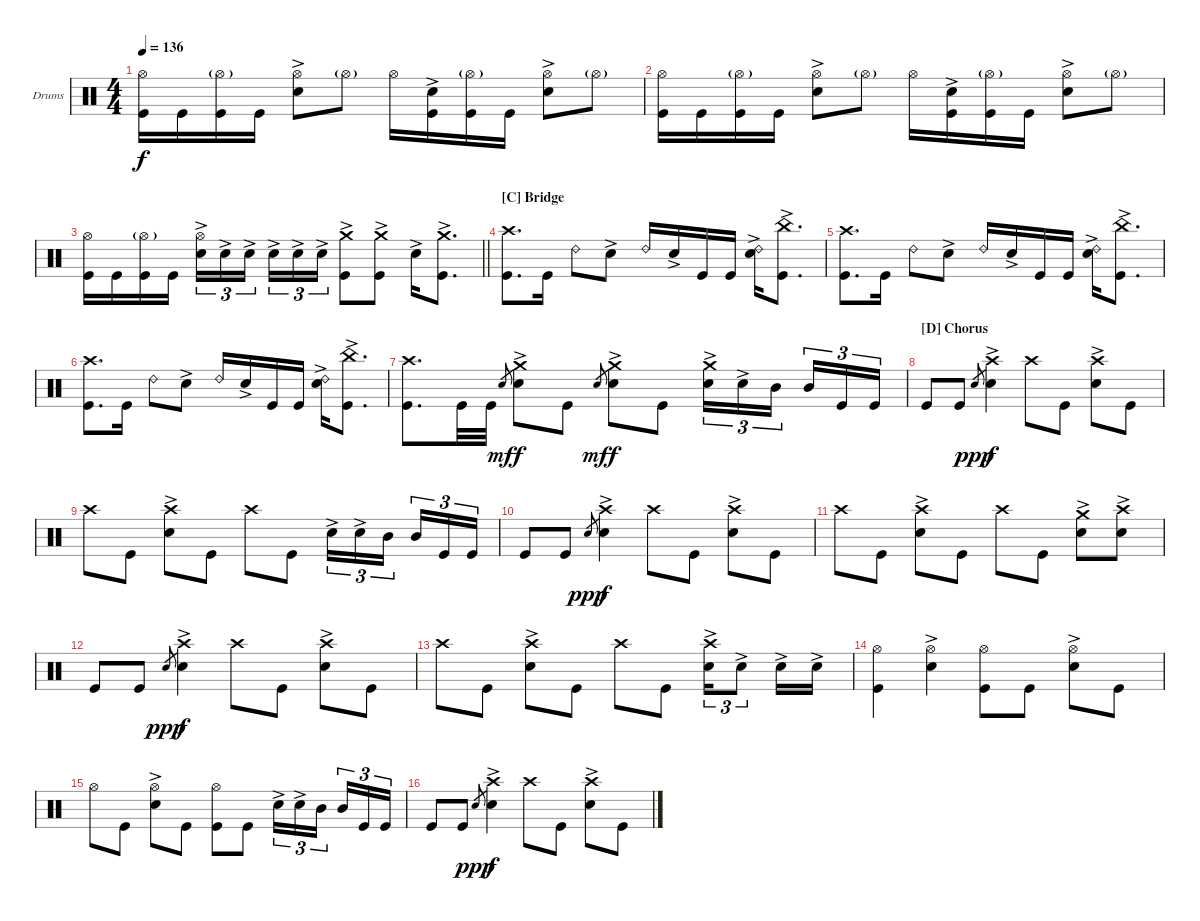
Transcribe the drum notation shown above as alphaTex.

\bracketExtendMode groupsimilarinstruments
\firstSystemTrackNameOrientation horizontal
\otherSystemsTrackNameOrientation horizontal
\track ("Drumkit" "Drums") {instrument percussion}
\staff {score}
\articulation defaults
\ts (4 4)
\tempo 136
\clef neutral
\ks c
("Hi-Hat (open)" "Kick (hit)").16{dy f} "Kick (hit)".16 ("Kick (hit)" "Hi-Hat (open)"{g}).16 "Kick (hit)".16 ("Hi-Hat (open)" "Snare (hit) 2"{ac}).8 "Hi-Hat (open)"{g}.8 "Hi-Hat (open)".16 ("Snare (hit) 2"{ac} "Kick (hit)").16 ("Kick (hit)" "Hi-Hat (open)"{g}).16 "Kick (hit)".16 ("Hi-Hat (open)" "Snare (hit) 2"{ac}).8 "Hi-Hat (open)"{g}.8 |
("Hi-Hat (open)" "Kick (hit)").16 "Kick (hit)".16 ("Kick (hit)" "Hi-Hat (open)"{g}).16 "Kick (hit)".16 ("Hi-Hat (open)" "Snare (hit) 2"{ac}).8 "Hi-Hat (open)"{g}.8 "Hi-Hat (open)".16 ("Snare (hit) 2"{ac} "Kick (hit)").16 ("Kick (hit)" "Hi-Hat (open)"{g}).16 "Kick (hit)".16 ("Hi-Hat (open)" "Snare (hit) 2"{ac}).8 "Hi-Hat (open)"{g}.8 |
\barLineRight lightlight
("Hi-Hat (open)" "Kick (hit)").16 "Kick (hit)".16 ("Kick (hit)" "Hi-Hat (open)"{g}).16 "Kick (hit)".16 ("Hi-Hat (open)" "Snare (hit) 2"{ac}).16{tu (3 2)} "Snare (hit) 2"{ac}.16{tu (3 2)} "Snare (hit) 2"{ac}.16{tu (3 2)} "Snare (hit) 2"{ac}.16{tu (3 2)} "Snare (hit) 2"{ac}.16{tu (3 2)} "Snare (hit) 2"{ac}.16{tu (3 2)} ("Crash medium (hit)"{ac} "Kick (hit)").8 ("Crash medium (hit)"{ac} "Kick (hit)").8 "Snare (hit) 2"{ac}.16 ("Crash medium (hit)"{ac} "Kick (hit)").8{d} |
\section ("C" "Bridge")
("Crash high (hit)" "Kick (hit)").8{d} "Kick (hit)".16 "Ride (bell) 2".8 "Snare (hit) 2"{ac}.8 "Ride (bell) 2".16 "Snare (hit) 2"{ac}.16 "Kick (hit)".16 "Kick (hit)".16 ("Ride (bell) 2" "Snare (hit) 2"{ac}).16 ("Kick (hit)" "China (hit)"{ac}).8{d} |
("Crash high (hit)" "Kick (hit)").8{d} "Kick (hit)".16 "Ride (bell) 2".8 "Snare (hit) 2"{ac}.8 "Ride (bell) 2".16 "Snare (hit) 2"{ac}.16 "Kick (hit)".16 "Kick (hit)".16 ("Ride (bell) 2" "Snare (hit) 2"{ac}).16 ("Kick (hit)" "China (hit)"{ac}).8{d} |
("Crash high (hit)" "Kick (hit)").8{d} "Kick (hit)".16 "Ride (bell) 2".8 "Snare (hit) 2"{ac}.8 "Ride (bell) 2".16 "Snare (hit) 2"{ac}.16 "Kick (hit)".16 "Kick (hit)".16 ("Ride (bell) 2" "Snare (hit) 2"{ac}).16 ("Kick (hit)" "China (hit)"{ac}).8{d} |
("Crash high (hit)" "Kick (hit)").8{d} "Kick (hit)".32 "Kick (hit)".32 "Snare (hit) 2".8{gr dy mf} ("Crash medium (hit)"{ac} "Snare (hit) 2"{ac}).8{dy f} "Kick (hit)".8 "Snare (hit) 2".8{gr dy mf} ("Crash medium (hit)"{ac} "Snare (hit) 2"{ac}).8{dy f} "Kick (hit)".8 ("Snare (hit) 2"{ac} "Crash medium (hit)"{ac}).16{tu (3 2)} "Snare (hit) 2"{ac}.16{tu (3 2)} "Mid Tom (hit)".16{tu (3 2)} "Mid Tom (hit)".16{tu (3 2)} "Kick (hit)".16{tu (3 2)} "Kick (hit)".16{tu (3 2)} |
\section ("D" "Chorus")
"Kick (hit)".8 "Kick (hit)".8 "Snare (hit) 2".8{gr dy ppp} ("Crash high (hit)" "Snare (hit) 2"{ac}).4{dy f} "Crash high (hit)".8 "Kick (hit)".8 ("Crash high (hit)" "Snare (hit) 2"{ac}).8 "Kick (hit)".8 |
"Crash high (hit)".8 "Kick (hit)".8 ("Crash high (hit)" "Snare (hit) 2"{ac}).8 "Kick (hit)".8 "Crash high (hit)".8 "Kick (hit)".8 "Snare (hit) 2"{ac}.16{tu (3 2)} "Snare (hit) 2"{ac}.16{tu (3 2)} "Mid Tom (hit)".16{tu (3 2)} "Mid Tom (hit)".16{tu (3 2)} "Kick (hit)".16{tu (3 2)} "Kick (hit)".16{tu (3 2)} |
"Kick (hit)".8 "Kick (hit)".8 "Snare (hit) 2".8{gr dy ppp} ("Crash high (hit)" "Snare (hit) 2"{ac}).4{dy f} "Crash high (hit)".8 "Kick (hit)".8 ("Crash high (hit)" "Snare (hit) 2"{ac}).8 "Kick (hit)".8 |
"Crash high (hit)".8 "Kick (hit)".8 ("Crash high (hit)" "Snare (hit) 2"{ac}).8 "Kick (hit)".8 "Crash high (hit)".8 "Kick (hit)".8 ("Crash medium (hit)"{ac} "Snare (hit) 2"{ac}).8 ("Crash high (hit)" "Snare (hit) 2"{ac}).8 |
"Kick (hit)".8 "Kick (hit)".8 "Snare (hit) 2".8{gr dy ppp} ("Crash high (hit)" "Snare (hit) 2"{ac}).4{dy f} "Crash high (hit)".8 "Kick (hit)".8 ("Crash high (hit)" "Snare (hit) 2"{ac}).8 "Kick (hit)".8 |
"Crash high (hit)".8 "Kick (hit)".8 ("Crash high (hit)" "Snare (hit) 2"{ac}).8 "Kick (hit)".8 "Crash high (hit)".8 "Kick (hit)".8 ("Crash high (hit)" "Snare (hit) 2"{ac}).16{tu (3 2)} "Snare (hit) 2"{ac}.8{tu (3 2)} "Snare (hit) 2"{ac}.16 "Snare (hit) 2"{ac}.16 |
("Hi-Hat (open)" "Kick (hit)").4 ("Hi-Hat (open)" "Snare (hit) 2"{ac}).4 ("Hi-Hat (open)" "Kick (hit)").8 "Kick (hit)".8 ("Hi-Hat (open)" "Snare (hit) 2"{ac}).8 "Kick (hit)".8 |
"Hi-Hat (open)".8 "Kick (hit)".8 ("Hi-Hat (open)" "Snare (hit) 2"{ac}).8 "Kick (hit)".8 ("Hi-Hat (open)" "Kick (hit)").8 "Kick (hit)".8 "Snare (hit) 2"{ac}.16{tu (3 2)} "Snare (hit) 2"{ac}.16{tu (3 2)} "Mid Tom (hit)".16{tu (3 2)} "Mid Tom (hit)".16{tu (3 2)} "Kick (hit)".16{tu (3 2)} "Kick (hit)".16{tu (3 2)} |
"Kick (hit)".8 "Kick (hit)".8 "Snare (hit) 2".8{gr dy ppp} ("Crash high (hit)" "Snare (hit) 2"{ac}).4{dy f} "Crash high (hit)".8 "Kick (hit)".8 ("Crash high (hit)" "Snare (hit) 2"{ac}).8 "Kick (hit)".8
